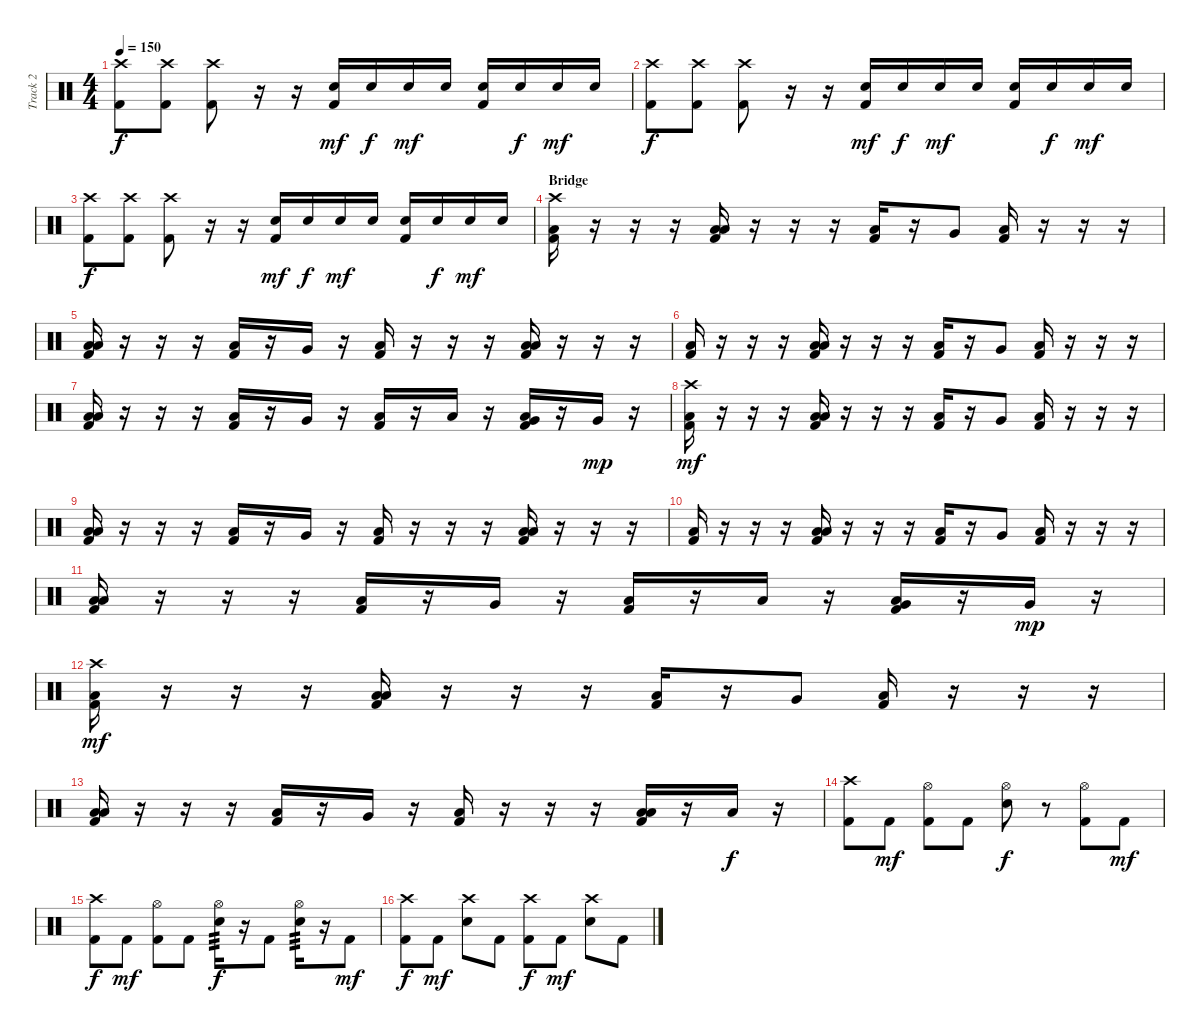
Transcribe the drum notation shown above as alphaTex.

\track ("Track 2" "Track 2") {instrument percussion}
\staff {score}
\articulation defaults
\ts (4 4)
\tempo 150
\clef neutral
\ks c
("Crash high (hit)" "Kick (hit) 2").8{dy f} ("Crash high (hit)" "Kick (hit) 2").8 ("Crash high (hit)" "Kick (hit) 2").8 r.16 r.16 ("Electric Snare (hit)" "Kick (hit) 2").16{dy mf} "Electric Snare (hit)".16{dy f} "Electric Snare (hit)".16{dy mf} "Electric Snare (hit)".16 ("Electric Snare (hit)" "Kick (hit) 2").16 "Electric Snare (hit)".16{dy f} "Electric Snare (hit)".16{dy mf} "Electric Snare (hit)".16 |
("Crash high (hit)" "Kick (hit) 2").8{dy f} ("Crash high (hit)" "Kick (hit) 2").8 ("Crash high (hit)" "Kick (hit) 2").8 r.16 r.16 ("Electric Snare (hit)" "Kick (hit) 2").16{dy mf} "Electric Snare (hit)".16{dy f} "Electric Snare (hit)".16{dy mf} "Electric Snare (hit)".16 ("Electric Snare (hit)" "Kick (hit) 2").16 "Electric Snare (hit)".16{dy f} "Electric Snare (hit)".16{dy mf} "Electric Snare (hit)".16 |
("Crash high (hit)" "Kick (hit) 2").8{dy f} ("Crash high (hit)" "Kick (hit) 2").8 ("Crash high (hit)" "Kick (hit) 2").8 r.16 r.16 ("Electric Snare (hit)" "Kick (hit) 2").16{dy mf} "Electric Snare (hit)".16{dy f} "Electric Snare (hit)".16{dy mf} "Electric Snare (hit)".16 ("Electric Snare (hit)" "Kick (hit) 2").16 "Electric Snare (hit)".16{dy f} "Electric Snare (hit)".16{dy mf} "Electric Snare (hit)".16 |
\section ("" "Bridge")
("Crash high (hit)" "Low Floor Tom (hit)" "Kick (hit) 2").16 r.16 r.16 r.16 ("Low Tom (hit)" "Low Floor Tom (hit)" "Kick (hit) 2").16 r.16 r.16 r.16 ("Low Floor Tom (hit)" "Kick (hit) 2").16 r.16 "Very Low Tom (hit)".8 ("Low Floor Tom (hit)" "Kick (hit) 2").16 r.16 r.16 r.16 |
("Low Tom (hit)" "Low Floor Tom (hit)" "Kick (hit) 2").16 r.16 r.16 r.16 ("Low Floor Tom (hit)" "Kick (hit) 2").16 r.16 "Very Low Tom (hit)".16 r.16 ("Low Floor Tom (hit)" "Kick (hit) 2").16 r.16 r.16 r.16 ("Low Tom (hit)" "Low Floor Tom (hit)" "Kick (hit) 2").16 r.16 r.16 r.16 |
("Low Floor Tom (hit)" "Kick (hit) 2").16 r.16 r.16 r.16 ("Low Tom (hit)" "Low Floor Tom (hit)" "Kick (hit) 2").16 r.16 r.16 r.16 ("Low Floor Tom (hit)" "Kick (hit) 2").16 r.16 "Very Low Tom (hit)".8 ("Low Floor Tom (hit)" "Kick (hit) 2").16 r.16 r.16 r.16 |
("Low Tom (hit)" "Low Floor Tom (hit)" "Kick (hit) 2").16 r.16 r.16 r.16 ("Low Floor Tom (hit)" "Kick (hit) 2").16 r.16 "Very Low Tom (hit)".16 r.16 ("Low Floor Tom (hit)" "Kick (hit) 2").16 r.16 "Low Tom (hit)".16 r.16 ("Very Low Tom (hit)" "Low Floor Tom (hit)" "Kick (hit) 2").16 r.16 "Very Low Tom (hit)".16{dy mp} r.16 |
("Crash high (hit)" "Low Floor Tom (hit)" "Kick (hit) 2").16{dy mf} r.16 r.16 r.16 ("Low Tom (hit)" "Low Floor Tom (hit)" "Kick (hit) 2").16 r.16 r.16 r.16 ("Low Floor Tom (hit)" "Kick (hit) 2").16 r.16 "Very Low Tom (hit)".8 ("Low Floor Tom (hit)" "Kick (hit) 2").16 r.16 r.16 r.16 |
("Low Tom (hit)" "Low Floor Tom (hit)" "Kick (hit) 2").16 r.16 r.16 r.16 ("Low Floor Tom (hit)" "Kick (hit) 2").16 r.16 "Very Low Tom (hit)".16 r.16 ("Low Floor Tom (hit)" "Kick (hit) 2").16 r.16 r.16 r.16 ("Low Tom (hit)" "Low Floor Tom (hit)" "Kick (hit) 2").16 r.16 r.16 r.16 |
("Low Floor Tom (hit)" "Kick (hit) 2").16 r.16 r.16 r.16 ("Low Tom (hit)" "Low Floor Tom (hit)" "Kick (hit) 2").16 r.16 r.16 r.16 ("Low Floor Tom (hit)" "Kick (hit) 2").16 r.16 "Very Low Tom (hit)".8 ("Low Floor Tom (hit)" "Kick (hit) 2").16 r.16 r.16 r.16 |
("Low Tom (hit)" "Low Floor Tom (hit)" "Kick (hit) 2").16 r.16 r.16 r.16 ("Low Floor Tom (hit)" "Kick (hit) 2").16 r.16 "Very Low Tom (hit)".16 r.16 ("Low Floor Tom (hit)" "Kick (hit) 2").16 r.16 "Low Tom (hit)".16 r.16 ("Very Low Tom (hit)" "Low Floor Tom (hit)" "Kick (hit) 2").16 r.16 "Very Low Tom (hit)".16{dy mp} r.16 |
("Crash high (hit)" "Low Floor Tom (hit)" "Kick (hit) 2").16{dy mf} r.16 r.16 r.16 ("Low Tom (hit)" "Low Floor Tom (hit)" "Kick (hit) 2").16 r.16 r.16 r.16 ("Low Floor Tom (hit)" "Kick (hit) 2").16 r.16 "Very Low Tom (hit)".8 ("Low Floor Tom (hit)" "Kick (hit) 2").16 r.16 r.16 r.16 |
("Low Tom (hit)" "Low Floor Tom (hit)" "Kick (hit) 2").16 r.16 r.16 r.16 ("Low Floor Tom (hit)" "Kick (hit) 2").16 r.16 "Very Low Tom (hit)".16 r.16 ("Low Floor Tom (hit)" "Kick (hit) 2").16 r.16 r.16 r.16 ("Low Tom (hit)" "Low Floor Tom (hit)" "Kick (hit) 2").16 r.16 "Low Tom (hit)".16{dy f} r.16 |
("Crash high (hit)" "Kick (hit) 2").8 "Kick (hit) 2".8{dy mf} ("Hi-Hat (open)" "Kick (hit) 2").8 "Kick (hit) 2".8 ("Hi-Hat (open)" "Electric Snare (hit)").8{dy f} r.8 ("Hi-Hat (open)" "Kick (hit) 2").8 "Kick (hit) 2".8{dy mf} |
("Crash high (hit)" "Kick (hit) 2").8{dy f} "Kick (hit) 2".8{dy mf} ("Hi-Hat (open)" "Kick (hit) 2").8 "Kick (hit) 2".8 ("Hi-Hat (open)" "Electric Snare (hit)").16{tp 3 dy f} r.16 "Kick (hit) 2".8 ("Hi-Hat (open)" "Electric Snare (hit)").16{tp 3} r.16 "Kick (hit) 2".8{dy mf} |
("Crash high (hit)" "Kick (hit) 2").8{dy f} "Kick (hit) 2".8{dy mf} ("Crash high (hit)" "Electric Snare (hit)").8 "Kick (hit) 2".8 ("Crash high (hit)" "Kick (hit) 2").8{dy f} "Kick (hit) 2".8{dy mf} ("Crash high (hit)" "Electric Snare (hit)").8 "Kick (hit) 2".8
